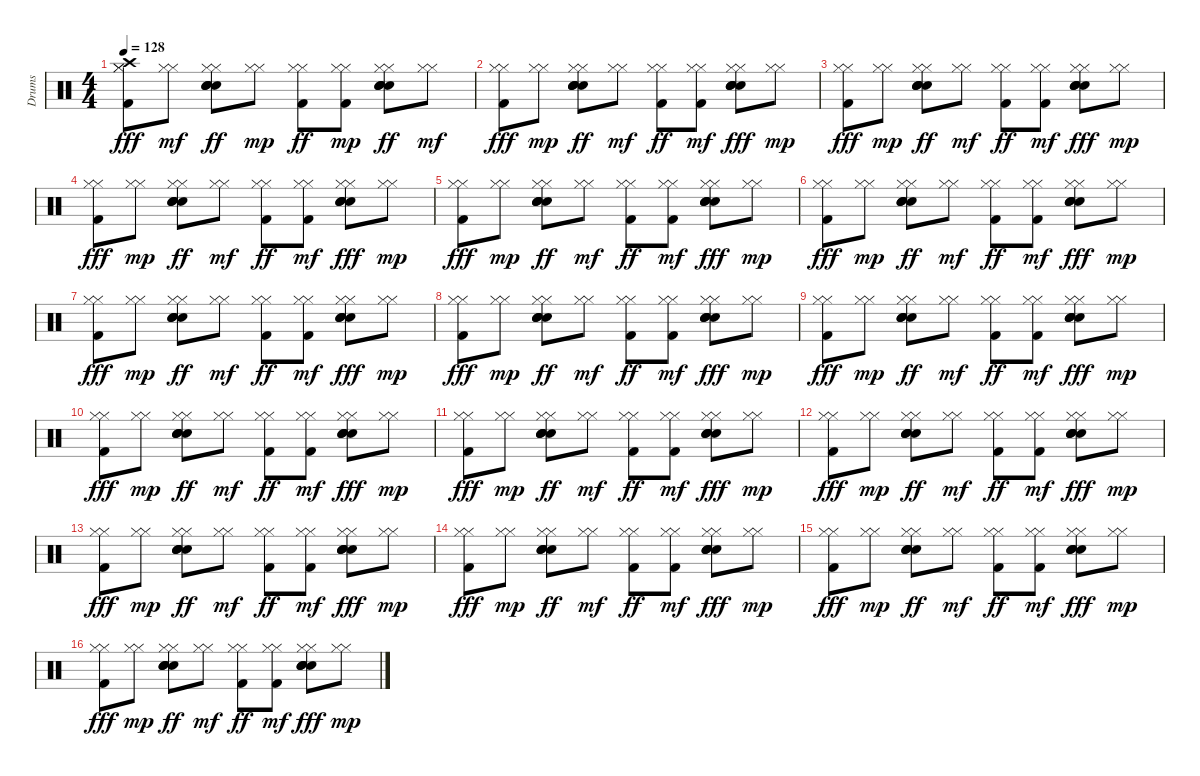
\track ("Drums" "Drums") {instrument percussion}
\staff {score}
\articulation defaults
\ts (4 4)
\tempo 128
\clef neutral
\ks c
("Crash high (hit)" "Hi-Hat (closed)" "Kick (hit) 2" "Hi-Hat (closed)").8{dy fff} ("Hi-Hat (closed)" "Hi-Hat (closed)").8{dy mf} ("Snare (hit) 2" "Hi-Hat (closed)" "Hi-Hat (closed)" "Electric Snare (hit)" "Electric Snare (hit)" "Electric Snare (hit)").8{dy ff} ("Hi-Hat (closed)" "Hi-Hat (closed)").8{dy mp} ("Hi-Hat (closed)" "Hi-Hat (closed)" "Kick (hit) 2").8{dy ff} ("Hi-Hat (closed)" "Hi-Hat (closed)" "Kick (hit) 2").8{dy mp} ("Hi-Hat (closed)" "Snare (hit) 2" "Hi-Hat (closed)" "Electric Snare (hit)" "Electric Snare (hit)" "Electric Snare (hit)").8{dy ff} ("Hi-Hat (closed)" "Hi-Hat (closed)").8{dy mf} |
("Kick (hit) 2" "Hi-Hat (closed)" "Hi-Hat (closed)").8{dy fff} ("Hi-Hat (closed)" "Hi-Hat (closed)").8{dy mp} ("Hi-Hat (closed)" "Hi-Hat (closed)" "Snare (hit) 2" "Electric Snare (hit)" "Electric Snare (hit)" "Electric Snare (hit)").8{dy ff} ("Hi-Hat (closed)" "Hi-Hat (closed)").8{dy mf} ("Kick (hit) 2" "Hi-Hat (closed)" "Hi-Hat (closed)").8{dy ff} ("Kick (hit) 2" "Hi-Hat (closed)" "Hi-Hat (closed)").8{dy mf} ("Snare (hit) 2" "Hi-Hat (closed)" "Hi-Hat (closed)" "Electric Snare (hit)" "Electric Snare (hit)" "Electric Snare (hit)").8{dy fff} ("Hi-Hat (closed)" "Hi-Hat (closed)").8{dy mp} |
("Kick (hit) 2" "Hi-Hat (closed)" "Hi-Hat (closed)").8{dy fff} ("Hi-Hat (closed)" "Hi-Hat (closed)").8{dy mp} ("Hi-Hat (closed)" "Hi-Hat (closed)" "Snare (hit) 2" "Electric Snare (hit)" "Electric Snare (hit)" "Electric Snare (hit)").8{dy ff} ("Hi-Hat (closed)" "Hi-Hat (closed)").8{dy mf} ("Kick (hit) 2" "Hi-Hat (closed)" "Hi-Hat (closed)").8{dy ff} ("Kick (hit) 2" "Hi-Hat (closed)" "Hi-Hat (closed)").8{dy mf} ("Snare (hit) 2" "Hi-Hat (closed)" "Hi-Hat (closed)" "Electric Snare (hit)" "Electric Snare (hit)" "Electric Snare (hit)").8{dy fff} ("Hi-Hat (closed)" "Hi-Hat (closed)").8{dy mp} |
("Kick (hit) 2" "Hi-Hat (closed)" "Hi-Hat (closed)").8{dy fff} ("Hi-Hat (closed)" "Hi-Hat (closed)").8{dy mp} ("Hi-Hat (closed)" "Hi-Hat (closed)" "Snare (hit) 2" "Electric Snare (hit)" "Electric Snare (hit)" "Electric Snare (hit)").8{dy ff} ("Hi-Hat (closed)" "Hi-Hat (closed)").8{dy mf} ("Kick (hit) 2" "Hi-Hat (closed)" "Hi-Hat (closed)").8{dy ff} ("Kick (hit) 2" "Hi-Hat (closed)" "Hi-Hat (closed)").8{dy mf} ("Snare (hit) 2" "Hi-Hat (closed)" "Hi-Hat (closed)" "Electric Snare (hit)" "Electric Snare (hit)" "Electric Snare (hit)").8{dy fff} ("Hi-Hat (closed)" "Hi-Hat (closed)").8{dy mp} |
("Kick (hit) 2" "Hi-Hat (closed)" "Hi-Hat (closed)").8{dy fff} ("Hi-Hat (closed)" "Hi-Hat (closed)").8{dy mp} ("Hi-Hat (closed)" "Hi-Hat (closed)" "Snare (hit) 2" "Electric Snare (hit)" "Electric Snare (hit)" "Electric Snare (hit)").8{dy ff} ("Hi-Hat (closed)" "Hi-Hat (closed)").8{dy mf} ("Kick (hit) 2" "Hi-Hat (closed)" "Hi-Hat (closed)").8{dy ff} ("Kick (hit) 2" "Hi-Hat (closed)" "Hi-Hat (closed)").8{dy mf} ("Snare (hit) 2" "Hi-Hat (closed)" "Hi-Hat (closed)" "Electric Snare (hit)" "Electric Snare (hit)" "Electric Snare (hit)").8{dy fff} ("Hi-Hat (closed)" "Hi-Hat (closed)").8{dy mp} |
("Kick (hit) 2" "Hi-Hat (closed)" "Hi-Hat (closed)").8{dy fff} ("Hi-Hat (closed)" "Hi-Hat (closed)").8{dy mp} ("Hi-Hat (closed)" "Hi-Hat (closed)" "Snare (hit) 2" "Electric Snare (hit)" "Electric Snare (hit)" "Electric Snare (hit)").8{dy ff} ("Hi-Hat (closed)" "Hi-Hat (closed)").8{dy mf} ("Kick (hit) 2" "Hi-Hat (closed)" "Hi-Hat (closed)").8{dy ff} ("Kick (hit) 2" "Hi-Hat (closed)" "Hi-Hat (closed)").8{dy mf} ("Snare (hit) 2" "Hi-Hat (closed)" "Hi-Hat (closed)" "Electric Snare (hit)" "Electric Snare (hit)" "Electric Snare (hit)").8{dy fff} ("Hi-Hat (closed)" "Hi-Hat (closed)").8{dy mp} |
("Kick (hit) 2" "Hi-Hat (closed)" "Hi-Hat (closed)").8{dy fff} ("Hi-Hat (closed)" "Hi-Hat (closed)").8{dy mp} ("Hi-Hat (closed)" "Hi-Hat (closed)" "Snare (hit) 2" "Electric Snare (hit)" "Electric Snare (hit)" "Electric Snare (hit)").8{dy ff} ("Hi-Hat (closed)" "Hi-Hat (closed)").8{dy mf} ("Kick (hit) 2" "Hi-Hat (closed)" "Hi-Hat (closed)").8{dy ff} ("Kick (hit) 2" "Hi-Hat (closed)" "Hi-Hat (closed)").8{dy mf} ("Snare (hit) 2" "Hi-Hat (closed)" "Hi-Hat (closed)" "Electric Snare (hit)" "Electric Snare (hit)" "Electric Snare (hit)").8{dy fff} ("Hi-Hat (closed)" "Hi-Hat (closed)").8{dy mp} |
("Kick (hit) 2" "Hi-Hat (closed)" "Hi-Hat (closed)").8{dy fff} ("Hi-Hat (closed)" "Hi-Hat (closed)").8{dy mp} ("Hi-Hat (closed)" "Hi-Hat (closed)" "Snare (hit) 2" "Electric Snare (hit)" "Electric Snare (hit)" "Electric Snare (hit)").8{dy ff} ("Hi-Hat (closed)" "Hi-Hat (closed)").8{dy mf} ("Kick (hit) 2" "Hi-Hat (closed)" "Hi-Hat (closed)").8{dy ff} ("Kick (hit) 2" "Hi-Hat (closed)" "Hi-Hat (closed)").8{dy mf} ("Snare (hit) 2" "Hi-Hat (closed)" "Hi-Hat (closed)" "Electric Snare (hit)" "Electric Snare (hit)" "Electric Snare (hit)").8{dy fff} ("Hi-Hat (closed)" "Hi-Hat (closed)").8{dy mp} |
("Kick (hit) 2" "Hi-Hat (closed)" "Hi-Hat (closed)").8{dy fff} ("Hi-Hat (closed)" "Hi-Hat (closed)").8{dy mp} ("Hi-Hat (closed)" "Hi-Hat (closed)" "Snare (hit) 2" "Electric Snare (hit)" "Electric Snare (hit)" "Electric Snare (hit)").8{dy ff} ("Hi-Hat (closed)" "Hi-Hat (closed)").8{dy mf} ("Kick (hit) 2" "Hi-Hat (closed)" "Hi-Hat (closed)").8{dy ff} ("Kick (hit) 2" "Hi-Hat (closed)" "Hi-Hat (closed)").8{dy mf} ("Snare (hit) 2" "Hi-Hat (closed)" "Hi-Hat (closed)" "Electric Snare (hit)" "Electric Snare (hit)" "Electric Snare (hit)").8{dy fff} ("Hi-Hat (closed)" "Hi-Hat (closed)").8{dy mp} |
("Kick (hit) 2" "Hi-Hat (closed)" "Hi-Hat (closed)").8{dy fff} ("Hi-Hat (closed)" "Hi-Hat (closed)").8{dy mp} ("Hi-Hat (closed)" "Hi-Hat (closed)" "Snare (hit) 2" "Electric Snare (hit)" "Electric Snare (hit)" "Electric Snare (hit)").8{dy ff} ("Hi-Hat (closed)" "Hi-Hat (closed)").8{dy mf} ("Kick (hit) 2" "Hi-Hat (closed)" "Hi-Hat (closed)").8{dy ff} ("Kick (hit) 2" "Hi-Hat (closed)" "Hi-Hat (closed)").8{dy mf} ("Snare (hit) 2" "Hi-Hat (closed)" "Hi-Hat (closed)" "Electric Snare (hit)" "Electric Snare (hit)" "Electric Snare (hit)").8{dy fff} ("Hi-Hat (closed)" "Hi-Hat (closed)").8{dy mp} |
("Kick (hit) 2" "Hi-Hat (closed)" "Hi-Hat (closed)").8{dy fff} ("Hi-Hat (closed)" "Hi-Hat (closed)").8{dy mp} ("Hi-Hat (closed)" "Hi-Hat (closed)" "Snare (hit) 2" "Electric Snare (hit)" "Electric Snare (hit)" "Electric Snare (hit)").8{dy ff} ("Hi-Hat (closed)" "Hi-Hat (closed)").8{dy mf} ("Kick (hit) 2" "Hi-Hat (closed)" "Hi-Hat (closed)").8{dy ff} ("Kick (hit) 2" "Hi-Hat (closed)" "Hi-Hat (closed)").8{dy mf} ("Snare (hit) 2" "Hi-Hat (closed)" "Hi-Hat (closed)" "Electric Snare (hit)" "Electric Snare (hit)" "Electric Snare (hit)").8{dy fff} ("Hi-Hat (closed)" "Hi-Hat (closed)").8{dy mp} |
("Kick (hit) 2" "Hi-Hat (closed)" "Hi-Hat (closed)").8{dy fff} ("Hi-Hat (closed)" "Hi-Hat (closed)").8{dy mp} ("Hi-Hat (closed)" "Hi-Hat (closed)" "Snare (hit) 2" "Electric Snare (hit)" "Electric Snare (hit)" "Electric Snare (hit)").8{dy ff} ("Hi-Hat (closed)" "Hi-Hat (closed)").8{dy mf} ("Kick (hit) 2" "Hi-Hat (closed)" "Hi-Hat (closed)").8{dy ff} ("Kick (hit) 2" "Hi-Hat (closed)" "Hi-Hat (closed)").8{dy mf} ("Snare (hit) 2" "Hi-Hat (closed)" "Hi-Hat (closed)" "Electric Snare (hit)" "Electric Snare (hit)" "Electric Snare (hit)").8{dy fff} ("Hi-Hat (closed)" "Hi-Hat (closed)").8{dy mp} |
("Kick (hit) 2" "Hi-Hat (closed)" "Hi-Hat (closed)").8{dy fff} ("Hi-Hat (closed)" "Hi-Hat (closed)").8{dy mp} ("Hi-Hat (closed)" "Hi-Hat (closed)" "Snare (hit) 2" "Electric Snare (hit)" "Electric Snare (hit)" "Electric Snare (hit)").8{dy ff} ("Hi-Hat (closed)" "Hi-Hat (closed)").8{dy mf} ("Kick (hit) 2" "Hi-Hat (closed)" "Hi-Hat (closed)").8{dy ff} ("Kick (hit) 2" "Hi-Hat (closed)" "Hi-Hat (closed)").8{dy mf} ("Snare (hit) 2" "Hi-Hat (closed)" "Hi-Hat (closed)" "Electric Snare (hit)" "Electric Snare (hit)" "Electric Snare (hit)").8{dy fff} ("Hi-Hat (closed)" "Hi-Hat (closed)").8{dy mp} |
("Kick (hit) 2" "Hi-Hat (closed)" "Hi-Hat (closed)").8{dy fff} ("Hi-Hat (closed)" "Hi-Hat (closed)").8{dy mp} ("Hi-Hat (closed)" "Hi-Hat (closed)" "Snare (hit) 2" "Electric Snare (hit)" "Electric Snare (hit)" "Electric Snare (hit)").8{dy ff} ("Hi-Hat (closed)" "Hi-Hat (closed)").8{dy mf} ("Kick (hit) 2" "Hi-Hat (closed)" "Hi-Hat (closed)").8{dy ff} ("Kick (hit) 2" "Hi-Hat (closed)" "Hi-Hat (closed)").8{dy mf} ("Snare (hit) 2" "Hi-Hat (closed)" "Hi-Hat (closed)" "Electric Snare (hit)" "Electric Snare (hit)" "Electric Snare (hit)").8{dy fff} ("Hi-Hat (closed)" "Hi-Hat (closed)").8{dy mp} |
("Kick (hit) 2" "Hi-Hat (closed)" "Hi-Hat (closed)").8{dy fff} ("Hi-Hat (closed)" "Hi-Hat (closed)").8{dy mp} ("Hi-Hat (closed)" "Hi-Hat (closed)" "Snare (hit) 2" "Electric Snare (hit)" "Electric Snare (hit)" "Electric Snare (hit)").8{dy ff} ("Hi-Hat (closed)" "Hi-Hat (closed)").8{dy mf} ("Kick (hit) 2" "Hi-Hat (closed)" "Hi-Hat (closed)").8{dy ff} ("Kick (hit) 2" "Hi-Hat (closed)" "Hi-Hat (closed)").8{dy mf} ("Snare (hit) 2" "Hi-Hat (closed)" "Hi-Hat (closed)" "Electric Snare (hit)" "Electric Snare (hit)" "Electric Snare (hit)").8{dy fff} ("Hi-Hat (closed)" "Hi-Hat (closed)").8{dy mp} |
("Kick (hit) 2" "Hi-Hat (closed)" "Hi-Hat (closed)").8{dy fff} ("Hi-Hat (closed)" "Hi-Hat (closed)").8{dy mp} ("Hi-Hat (closed)" "Hi-Hat (closed)" "Snare (hit) 2" "Electric Snare (hit)" "Electric Snare (hit)" "Electric Snare (hit)").8{dy ff} ("Hi-Hat (closed)" "Hi-Hat (closed)").8{dy mf} ("Kick (hit) 2" "Hi-Hat (closed)" "Hi-Hat (closed)").8{dy ff} ("Kick (hit) 2" "Hi-Hat (closed)" "Hi-Hat (closed)").8{dy mf} ("Snare (hit) 2" "Hi-Hat (closed)" "Hi-Hat (closed)" "Electric Snare (hit)" "Electric Snare (hit)" "Electric Snare (hit)").8{dy fff} ("Hi-Hat (closed)" "Hi-Hat (closed)").8{dy mp}
